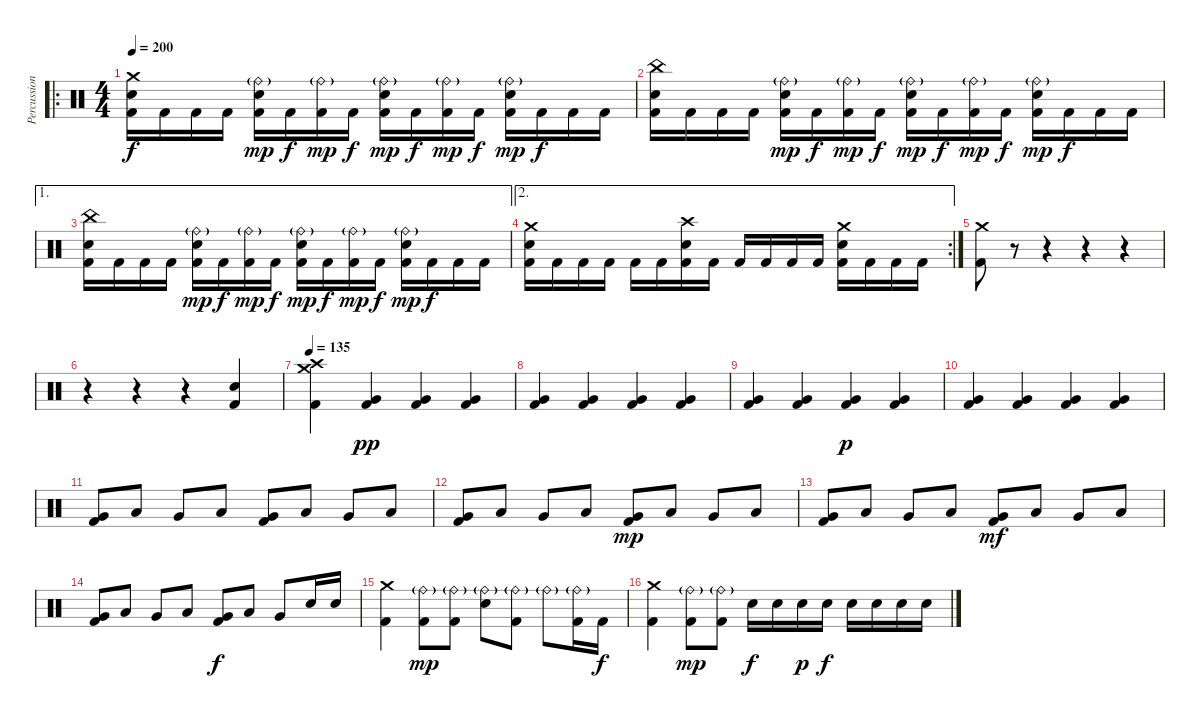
\track ("Percussion" "Percussion") {instrument percussion}
\staff {score}
\articulation defaults
\ro
\ts (4 4)
\tempo 200
\clef neutral
\ks c
("Crash medium (hit)" "Electric Snare (hit)" "Kick (hit) 2").16{dy f} "Kick (hit) 2".16 "Kick (hit) 2".16 "Kick (hit) 2".16 ("Ride (bell)"{g} "Electric Snare (hit)" "Kick (hit) 2").16{dy mp} "Kick (hit) 2".16{dy f} ("Ride (bell)"{g} "Kick (hit) 2").16{dy mp} "Kick (hit) 2".16{dy f} ("Ride (bell)"{g} "Electric Snare (hit)" "Kick (hit) 2").16{dy mp} "Kick (hit) 2".16{dy f} ("Ride (bell)"{g} "Kick (hit) 2").16{dy mp} "Kick (hit) 2".16{dy f} ("Ride (bell)"{g} "Electric Snare (hit)" "Kick (hit) 2").16{dy mp} "Kick (hit) 2".16{dy f} "Kick (hit) 2".16 "Kick (hit) 2".16 |
("China (hit)" "Electric Snare (hit)" "Kick (hit) 2").16 "Kick (hit) 2".16 "Kick (hit) 2".16 "Kick (hit) 2".16 ("Ride (bell)"{g} "Electric Snare (hit)" "Kick (hit) 2").16{dy mp} "Kick (hit) 2".16{dy f} ("Ride (bell)"{g} "Kick (hit) 2").16{dy mp} "Kick (hit) 2".16{dy f} ("Ride (bell)"{g} "Electric Snare (hit)" "Kick (hit) 2").16{dy mp} "Kick (hit) 2".16{dy f} ("Ride (bell)"{g} "Kick (hit) 2").16{dy mp} "Kick (hit) 2".16{dy f} ("Ride (bell)"{g} "Electric Snare (hit)" "Kick (hit) 2").16{dy mp} "Kick (hit) 2".16{dy f} "Kick (hit) 2".16 "Kick (hit) 2".16 |
\ae 1
("China (hit)" "Electric Snare (hit)" "Kick (hit) 2").16 "Kick (hit) 2".16 "Kick (hit) 2".16 "Kick (hit) 2".16 ("Ride (bell)"{g} "Electric Snare (hit)" "Kick (hit) 2").16{dy mp} "Kick (hit) 2".16{dy f} ("Ride (bell)"{g} "Kick (hit) 2").16{dy mp} "Kick (hit) 2".16{dy f} ("Ride (bell)"{g} "Electric Snare (hit)" "Kick (hit) 2").16{dy mp} "Kick (hit) 2".16{dy f} ("Ride (bell)"{g} "Kick (hit) 2").16{dy mp} "Kick (hit) 2".16{dy f} ("Ride (bell)"{g} "Electric Snare (hit)" "Kick (hit) 2").16{dy mp} "Kick (hit) 2".16{dy f} "Kick (hit) 2".16 "Kick (hit) 2".16 |
\ae 2
\rc 2
("Crash medium (hit)" "Electric Snare (hit)" "Kick (hit) 2").16 "Kick (hit) 2".16 "Kick (hit) 2".16 "Kick (hit) 2".16 "Kick (hit) 2".16 "Kick (hit) 2".16 ("Crash high (hit)" "Electric Snare (hit)" "Kick (hit) 2").16 "Kick (hit) 2".16 "Kick (hit) 2".16 "Kick (hit) 2".16 "Kick (hit) 2".16 "Kick (hit) 2".16 ("Crash medium (hit)" "Electric Snare (hit)" "Kick (hit) 2").16 "Kick (hit) 2".16 "Kick (hit) 2".16 "Kick (hit) 2".16 |
("Crash medium (hit)" "Kick (hit) 2").8 r.8 r.4 r.4 r.4 |
r.4 r.4 r.4 ("Electric Snare (hit)" "Kick (hit) 2").4 |
\tempo 135
("Crash medium (hit)" "Crash high (hit)" "Kick (hit) 2").4 ("Very Low Tom (hit)" "Kick (hit) 2").4{dy pp} ("Very Low Tom (hit)" "Kick (hit) 2").4 ("Very Low Tom (hit)" "Kick (hit) 2").4 |
("Very Low Tom (hit)" "Kick (hit) 2").4 ("Very Low Tom (hit)" "Kick (hit) 2").4 ("Very Low Tom (hit)" "Kick (hit) 2").4 ("Very Low Tom (hit)" "Kick (hit) 2").4 |
("Very Low Tom (hit)" "Kick (hit) 2").4 ("Very Low Tom (hit)" "Kick (hit) 2").4 ("Very Low Tom (hit)" "Kick (hit) 2").4{dy p} ("Very Low Tom (hit)" "Kick (hit) 2").4 |
("Very Low Tom (hit)" "Kick (hit) 2").4 ("Very Low Tom (hit)" "Kick (hit) 2").4 ("Very Low Tom (hit)" "Kick (hit) 2").4 ("Very Low Tom (hit)" "Kick (hit) 2").4 |
("Very Low Tom (hit)" "Kick (hit) 2").8 "Low Floor Tom (hit)".8 "Very Low Tom (hit)".8 "Low Floor Tom (hit)".8 ("Very Low Tom (hit)" "Kick (hit) 2").8 "Low Floor Tom (hit)".8 "Very Low Tom (hit)".8 "Low Floor Tom (hit)".8 |
("Very Low Tom (hit)" "Kick (hit) 2").8 "Low Floor Tom (hit)".8 "Very Low Tom (hit)".8 "Low Floor Tom (hit)".8 ("Very Low Tom (hit)" "Kick (hit) 2").8{dy mp} "Low Floor Tom (hit)".8 "Very Low Tom (hit)".8 "Low Floor Tom (hit)".8 |
("Very Low Tom (hit)" "Kick (hit) 2").8 "Low Floor Tom (hit)".8 "Very Low Tom (hit)".8 "Low Floor Tom (hit)".8 ("Very Low Tom (hit)" "Kick (hit) 2").8{dy mf} "Low Floor Tom (hit)".8 "Very Low Tom (hit)".8 "Low Floor Tom (hit)".8 |
("Very Low Tom (hit)" "Kick (hit) 2").8 "Low Floor Tom (hit)".8 "Very Low Tom (hit)".8 "Low Floor Tom (hit)".8 ("Very Low Tom (hit)" "Kick (hit) 2").8{dy f} "Low Floor Tom (hit)".8 "Very Low Tom (hit)".8 "Electric Snare (hit)".16 "Electric Snare (hit)".16 |
("Crash medium (hit)" "Kick (hit) 2").4 ("Ride (bell)"{g} "Kick (hit) 2").8{dy mp} ("Ride (bell)"{g} "Kick (hit) 2").8 ("Ride (bell)"{g} "Electric Snare (hit)").8 ("Ride (bell)"{g} "Kick (hit) 2").8 "Ride (bell)"{g}.8 ("Ride (bell)"{g} "Kick (hit) 2").16 "Kick (hit) 2".16{dy f} |
("Crash medium (hit)" "Kick (hit) 2").4 ("Ride (bell)"{g} "Kick (hit) 2").8{dy mp} ("Ride (bell)"{g} "Kick (hit) 2").8 "Electric Snare (hit)".16{dy f} "Electric Snare (hit)".16 "Electric Snare (hit)".16{dy p} "Electric Snare (hit)".16{dy f} "Electric Snare (hit)".16 "Electric Snare (hit)".16 "Electric Snare (hit)".16 "Electric Snare (hit)".16
